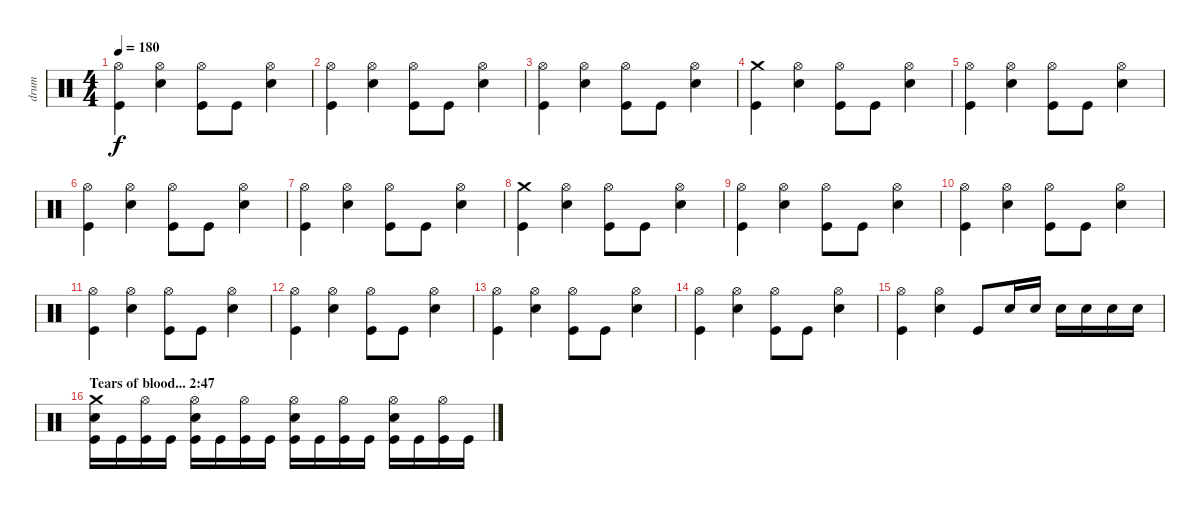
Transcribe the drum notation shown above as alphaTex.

\track ("drum" "drum") {instrument percussion}
\staff {score}
\articulation defaults
\ts (4 4)
\tempo 180
\clef neutral
\ks c
("Hi-Hat (open)" "Kick (hit)").4{dy f} ("Hi-Hat (open)" "Snare (hit) 2").4 ("Hi-Hat (open)" "Kick (hit)").8 "Kick (hit)".8 ("Hi-Hat (open)" "Snare (hit) 2").4 |
("Hi-Hat (open)" "Kick (hit)").4 ("Hi-Hat (open)" "Snare (hit) 2").4 ("Hi-Hat (open)" "Kick (hit)").8 "Kick (hit)".8 ("Hi-Hat (open)" "Snare (hit) 2").4 |
("Hi-Hat (open)" "Kick (hit)").4 ("Hi-Hat (open)" "Snare (hit) 2").4 ("Hi-Hat (open)" "Kick (hit)").8 "Kick (hit)".8 ("Hi-Hat (open)" "Snare (hit) 2").4 |
("Crash medium (hit)" "Kick (hit)").4 ("Hi-Hat (open)" "Snare (hit) 2").4 ("Hi-Hat (open)" "Kick (hit)").8 "Kick (hit)".8 ("Hi-Hat (open)" "Snare (hit) 2").4 |
("Hi-Hat (open)" "Kick (hit)").4 ("Hi-Hat (open)" "Snare (hit) 2").4 ("Hi-Hat (open)" "Kick (hit)").8 "Kick (hit)".8 ("Hi-Hat (open)" "Snare (hit) 2").4 |
("Hi-Hat (open)" "Kick (hit)").4 ("Hi-Hat (open)" "Snare (hit) 2").4 ("Hi-Hat (open)" "Kick (hit)").8 "Kick (hit)".8 ("Hi-Hat (open)" "Snare (hit) 2").4 |
("Hi-Hat (open)" "Kick (hit)").4 ("Hi-Hat (open)" "Snare (hit) 2").4 ("Hi-Hat (open)" "Kick (hit)").8 "Kick (hit)".8 ("Hi-Hat (open)" "Snare (hit) 2").4 |
("Crash medium (hit)" "Kick (hit)").4 ("Hi-Hat (open)" "Snare (hit) 2").4 ("Hi-Hat (open)" "Kick (hit)").8 "Kick (hit)".8 ("Hi-Hat (open)" "Snare (hit) 2").4 |
("Hi-Hat (open)" "Kick (hit)").4 ("Hi-Hat (open)" "Snare (hit) 2").4 ("Hi-Hat (open)" "Kick (hit)").8 "Kick (hit)".8 ("Hi-Hat (open)" "Snare (hit) 2").4 |
("Hi-Hat (open)" "Kick (hit)").4 ("Hi-Hat (open)" "Snare (hit) 2").4 ("Hi-Hat (open)" "Kick (hit)").8 "Kick (hit)".8 ("Hi-Hat (open)" "Snare (hit) 2").4 |
("Hi-Hat (open)" "Kick (hit)").4 ("Hi-Hat (open)" "Snare (hit) 2").4 ("Hi-Hat (open)" "Kick (hit)").8 "Kick (hit)".8 ("Hi-Hat (open)" "Snare (hit) 2").4 |
("Hi-Hat (open)" "Kick (hit)").4 ("Hi-Hat (open)" "Snare (hit) 2").4 ("Hi-Hat (open)" "Kick (hit)").8 "Kick (hit)".8 ("Hi-Hat (open)" "Snare (hit) 2").4 |
("Hi-Hat (open)" "Kick (hit)").4 ("Hi-Hat (open)" "Snare (hit) 2").4 ("Hi-Hat (open)" "Kick (hit)").8 "Kick (hit)".8 ("Hi-Hat (open)" "Snare (hit) 2").4 |
("Hi-Hat (open)" "Kick (hit)").4 ("Hi-Hat (open)" "Snare (hit) 2").4 ("Hi-Hat (open)" "Kick (hit)").8 "Kick (hit)".8 ("Hi-Hat (open)" "Snare (hit) 2").4 |
("Hi-Hat (open)" "Kick (hit)").4 ("Hi-Hat (open)" "Snare (hit) 2").4 "Kick (hit)".8 "Snare (hit) 2".16 "Snare (hit) 2".16 "Snare (hit) 2".16 "Snare (hit) 2".16 "Snare (hit) 2".16 "Snare (hit) 2".16 |
\section ("" "Tears of blood... 2:47")
("Crash medium (hit)" "Snare (hit) 2" "Kick (hit)").16 "Kick (hit)".16 ("Hi-Hat (open)" "Kick (hit)").16 "Kick (hit)".16 ("Hi-Hat (open)" "Snare (hit) 2" "Kick (hit)").16 "Kick (hit)".16 ("Hi-Hat (open)" "Kick (hit)").16 "Kick (hit)".16 ("Hi-Hat (open)" "Snare (hit) 2" "Kick (hit)").16 "Kick (hit)".16 ("Hi-Hat (open)" "Kick (hit)").16 "Kick (hit)".16 ("Hi-Hat (open)" "Snare (hit) 2" "Kick (hit)").16 "Kick (hit)".16 ("Hi-Hat (open)" "Kick (hit)").16 "Kick (hit)".16
